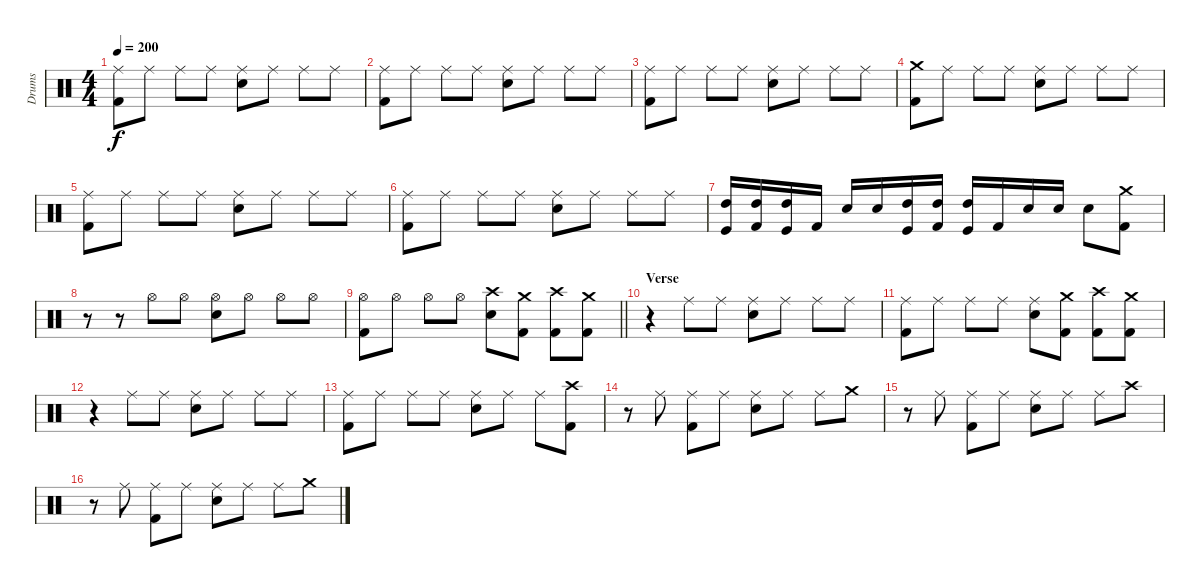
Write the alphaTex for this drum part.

\track ("Drums" "Drums") {instrument percussion}
\staff {score}
\articulation defaults
\ts (4 4)
\tempo 200
\clef neutral
\ks c
("Ride (middle)" "Kick (hit) 2").8{dy f} "Ride (middle)".8 "Ride (middle)".8 "Ride (middle)".8 ("Ride (middle)" "Electric Snare (hit)").8 "Ride (middle)".8 "Ride (middle)".8 "Ride (middle)".8 |
("Ride (middle)" "Kick (hit) 2").8 "Ride (middle)".8 "Ride (middle)".8 "Ride (middle)".8 ("Ride (middle)" "Electric Snare (hit)").8 "Ride (middle)".8 "Ride (middle)".8 "Ride (middle)".8 |
("Ride (middle)" "Kick (hit) 2").8 "Ride (middle)".8 "Ride (middle)".8 "Ride (middle)".8 ("Ride (middle)" "Electric Snare (hit)").8 "Ride (middle)".8 "Ride (middle)".8 "Ride (middle)".8 |
("Crash medium (hit)" "Kick (hit) 2").8 "Ride (middle)".8 "Ride (middle)".8 "Ride (middle)".8 ("Ride (middle)" "Electric Snare (hit)").8 "Ride (middle)".8 "Ride (middle)".8 "Ride (middle)".8 |
("Ride (middle)" "Kick (hit) 2").8 "Ride (middle)".8 "Ride (middle)".8 "Ride (middle)".8 ("Ride (middle)" "Electric Snare (hit)").8 "Ride (middle)".8 "Ride (middle)".8 "Ride (middle)".8 |
("Ride (middle)" "Kick (hit) 2").8 "Ride (middle)".8 "Ride (middle)".8 "Ride (middle)".8 ("Ride (middle)" "Electric Snare (hit)").8 "Ride (middle)".8 "Ride (middle)".8 "Ride (middle)".8 |
("High Tom (hit)" "Kick (hit)").16 ("High Tom (hit)" "Kick (hit) 2").16 ("High Tom (hit)" "Kick (hit)").16 "Kick (hit) 2".16 "Electric Snare (hit)".16 "Electric Snare (hit)".16 ("High Tom (hit)" "Kick (hit)").16 ("High Tom (hit)" "Kick (hit) 2").16 ("High Tom (hit)" "Kick (hit)").16 "Kick (hit) 2".16 "Electric Snare (hit)".16 "Electric Snare (hit)".16 "Electric Snare (hit)".8 ("Crash medium (hit)" "Kick (hit) 2").8 |
r.8 r.8 "Hi-Hat (open)".8 "Hi-Hat (open)".8 ("Hi-Hat (open)" "Electric Snare (hit)").8 "Hi-Hat (open)".8 "Hi-Hat (open)".8 "Hi-Hat (open)".8 |
\barLineRight lightlight
("Hi-Hat (open)" "Kick (hit) 2").8 "Hi-Hat (open)".8 "Hi-Hat (open)".8 "Hi-Hat (open)".8 ("Crash high (hit)" "Electric Snare (hit)").8 ("Crash medium (hit)" "Kick (hit) 2").8 ("Crash high (hit)" "Kick (hit) 2").8 ("Crash medium (hit)" "Kick (hit) 2").8 |
\section ("" "Verse")
r.4 "Ride (middle)".8 "Ride (middle)".8 ("Ride (middle)" "Electric Snare (hit)").8 "Ride (middle)".8 "Ride (middle)".8 "Ride (middle)".8 |
("Ride (middle)" "Kick (hit) 2").8 "Ride (middle)".8 "Ride (middle)".8 "Ride (middle)".8 ("Ride (middle)" "Electric Snare (hit)").8 ("Crash medium (hit)" "Kick (hit) 2").8 ("Crash high (hit)" "Kick (hit) 2").8 ("Crash medium (hit)" "Kick (hit) 2").8 |
r.4 "Ride (middle)".8 "Ride (middle)".8 ("Ride (middle)" "Electric Snare (hit)").8 "Ride (middle)".8 "Ride (middle)".8 "Ride (middle)".8 |
("Ride (middle)" "Kick (hit) 2").8 "Ride (middle)".8 "Ride (middle)".8 "Ride (middle)".8 ("Ride (middle)" "Electric Snare (hit)").8 "Ride (middle)".8 "Ride (middle)".8 ("Crash high (hit)" "Kick (hit) 2").8 |
r.8 "Ride (middle)".8 ("Ride (middle)" "Kick (hit) 2").8 "Ride (middle)".8 ("Ride (middle)" "Electric Snare (hit)").8 "Ride (middle)".8 "Ride (middle)".8 "Crash medium (hit)".8 |
r.8 "Ride (middle)".8 ("Ride (middle)" "Kick (hit) 2").8 "Ride (middle)".8 ("Ride (middle)" "Electric Snare (hit)").8 "Ride (middle)".8 "Ride (middle)".8 "Crash high (hit)".8 |
r.8 "Ride (middle)".8 ("Ride (middle)" "Kick (hit) 2").8 "Ride (middle)".8 ("Ride (middle)" "Electric Snare (hit)").8 "Ride (middle)".8 "Ride (middle)".8 "Crash medium (hit)".8
